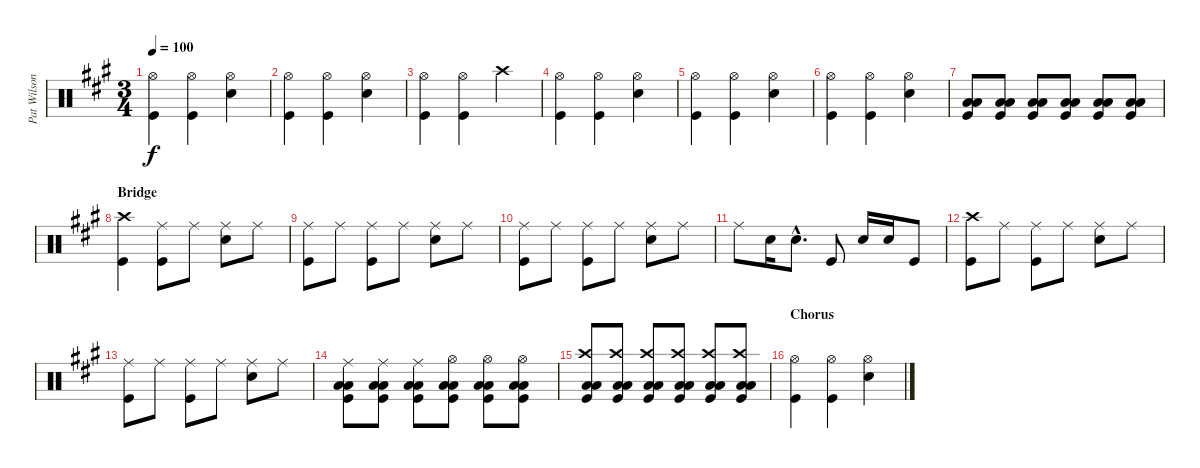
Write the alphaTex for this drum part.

\track ("Pat Wilson" "Pat Wilson") {instrument percussion}
\staff {score}
\articulation defaults
\ts (3 4)
\tempo 100
\clef neutral
\ks a
("Hi-Hat (open)" "Kick (hit)").4{dy f} ("Hi-Hat (open)" "Kick (hit)").4 ("Hi-Hat (open)" "Snare (hit) 2").4 |
("Hi-Hat (open)" "Kick (hit)").4 ("Hi-Hat (open)" "Kick (hit)").4 ("Hi-Hat (open)" "Snare (hit) 2").4 |
("Hi-Hat (open)" "Kick (hit)").4 ("Hi-Hat (open)" "Kick (hit)").4 "Crash high (hit)".4 |
("Hi-Hat (open)" "Kick (hit)").4 ("Hi-Hat (open)" "Kick (hit)").4 ("Hi-Hat (open)" "Snare (hit) 2").4 |
("Hi-Hat (open)" "Kick (hit)").4 ("Hi-Hat (open)" "Kick (hit)").4 ("Hi-Hat (open)" "Snare (hit) 2").4 |
("Hi-Hat (open)" "Kick (hit)").4 ("Hi-Hat (open)" "Kick (hit)").4 ("Hi-Hat (open)" "Snare (hit) 2").4 |
("Kick (hit)" "Low Floor Tom (hit)" "Low Tom (hit)").8 ("Kick (hit)" "Low Floor Tom (hit)" "Low Tom (hit)").8 ("Kick (hit)" "Low Floor Tom (hit)" "Low Tom (hit)").8 ("Kick (hit)" "Low Floor Tom (hit)" "Low Tom (hit)").8 ("Kick (hit)" "Low Floor Tom (hit)" "Low Tom (hit)").8 ("Kick (hit)" "Low Floor Tom (hit)" "Low Tom (hit)").8 |
\section ("" "Bridge")
("Crash high (hit)" "Kick (hit)").4 ("Ride (middle)" "Kick (hit)").8 "Ride (middle)".8 ("Ride (middle)" "Snare (hit) 2").8 "Ride (middle)".8 |
("Ride (middle)" "Kick (hit)").8 "Ride (middle)".8 ("Ride (middle)" "Kick (hit)").8 "Ride (middle)".8 ("Ride (middle)" "Snare (hit) 2").8 "Ride (middle)".8 |
("Ride (middle)" "Kick (hit)").8 "Ride (middle)".8 ("Ride (middle)" "Kick (hit)").8 "Ride (middle)".8 ("Ride (middle)" "Snare (hit) 2").8 "Ride (middle)".8 |
"Ride (middle)".8 "Snare (hit) 2".16 "Snare (hit) 2"{hac}.8{d} "Kick (hit)".8 "Snare (hit) 2".16 "Snare (hit) 2".16 "Kick (hit)".8 |
("Crash high (hit)" "Kick (hit)").8 "Ride (middle)".8 ("Ride (middle)" "Kick (hit)").8 "Ride (middle)".8 ("Ride (middle)" "Snare (hit) 2").8 "Ride (middle)".8 |
("Ride (middle)" "Kick (hit)").8 "Ride (middle)".8 ("Ride (middle)" "Kick (hit)").8 "Ride (middle)".8 ("Ride (middle)" "Snare (hit) 2").8 "Ride (middle)".8 |
("Ride (middle)" "Kick (hit)" "Low Floor Tom (hit)" "Low Tom (hit)").8 ("Ride (middle)" "Kick (hit)" "Low Floor Tom (hit)" "Low Tom (hit)").8 ("Ride (middle)" "Kick (hit)" "Low Floor Tom (hit)" "Low Tom (hit)").8 ("Hi-Hat (open)" "Kick (hit)" "Low Floor Tom (hit)" "Low Tom (hit)").8 ("Hi-Hat (open)" "Kick (hit)" "Low Floor Tom (hit)" "Low Tom (hit)").8 ("Hi-Hat (open)" "Kick (hit)" "Low Floor Tom (hit)" "Low Tom (hit)").8 |
("Crash high (hit)" "Kick (hit)" "Low Floor Tom (hit)" "Low Tom (hit)").8 ("Crash high (hit)" "Kick (hit)" "Low Floor Tom (hit)" "Low Tom (hit)").8 ("Crash high (hit)" "Kick (hit)" "Low Floor Tom (hit)" "Low Tom (hit)").8 ("Crash high (hit)" "Kick (hit)" "Low Floor Tom (hit)" "Low Tom (hit)").8 ("Crash high (hit)" "Kick (hit)" "Low Floor Tom (hit)" "Low Tom (hit)").8 ("Crash high (hit)" "Kick (hit)" "Low Floor Tom (hit)" "Low Tom (hit)").8 |
\section ("" "Chorus")
("Hi-Hat (open)" "Kick (hit)").4 ("Hi-Hat (open)" "Kick (hit)").4 ("Hi-Hat (open)" "Snare (hit) 2").4
